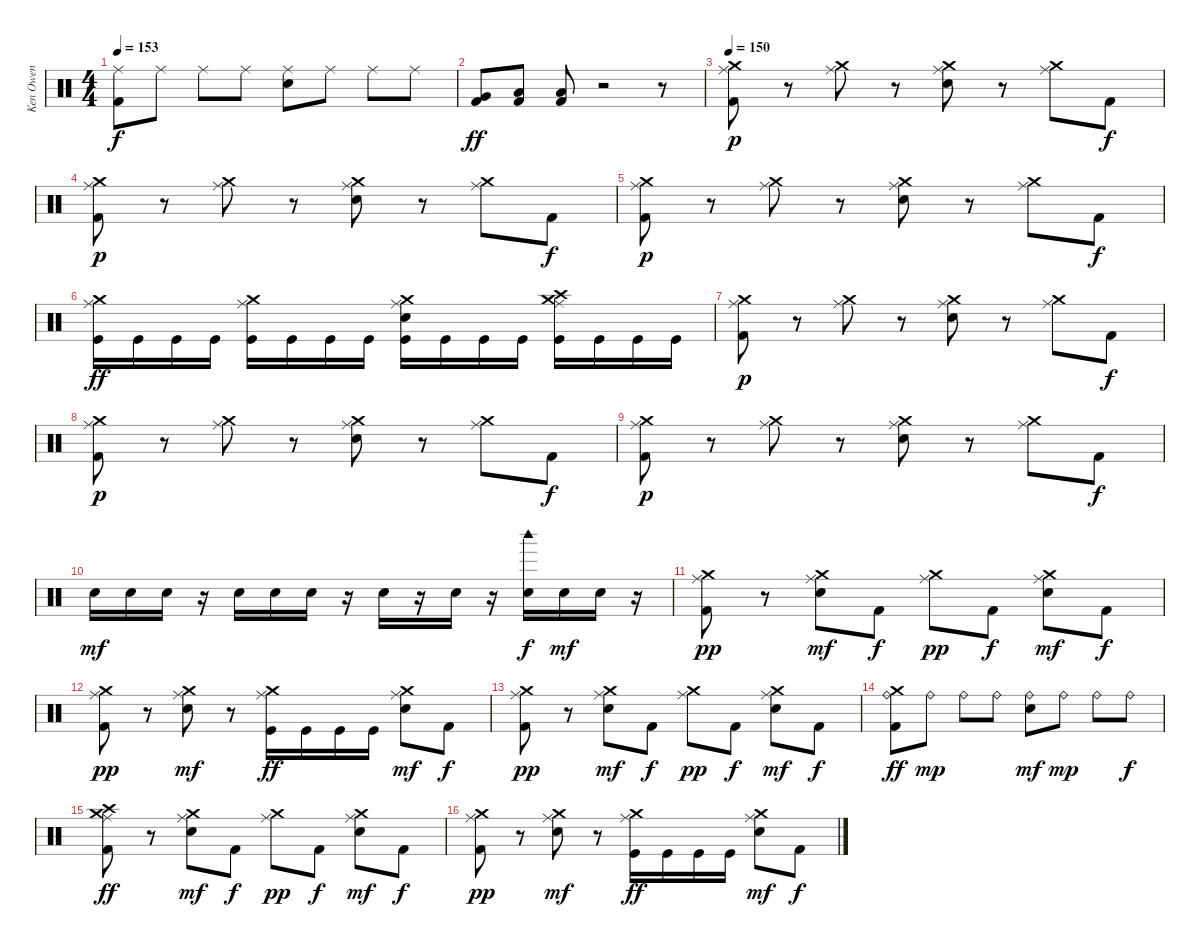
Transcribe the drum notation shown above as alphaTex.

\track ("Ken Owen" "Ken Owen") {instrument percussion}
\staff {score}
\articulation defaults
\ts (4 4)
\tempo 153
\clef neutral
\ks c
("Ride (middle)" "Kick (hit) 2").8{dy f} "Ride (middle)".8 "Ride (middle)".8 "Ride (middle)".8 ("Ride (middle)" "Electric Snare (hit)").8 "Ride (middle)".8 "Ride (middle)".8 "Ride (middle)".8 |
("Kick (hit) 2" "Very Low Tom (hit)").8{dy ff} ("Kick (hit) 2" "Low Floor Tom (hit)").8 ("Kick (hit) 2" "Low Floor Tom (hit)").8 r.2 r.8 |
\tempo 150
("Crash medium (hit)" "Ride (middle)" "Kick (hit) 2").8{dy p} r.8 ("Crash medium (hit)" "Ride (middle)").8 r.8 ("Crash medium (hit)" "Ride (middle)" "Electric Snare (hit)").8 r.8 ("Crash medium (hit)" "Ride (middle)").8 "Kick (hit) 2".8{dy f} |
("Crash medium (hit)" "Ride (middle)" "Kick (hit) 2").8{dy p} r.8 ("Crash medium (hit)" "Ride (middle)").8 r.8 ("Crash medium (hit)" "Ride (middle)" "Electric Snare (hit)").8 r.8 ("Crash medium (hit)" "Ride (middle)").8 "Kick (hit) 2".8{dy f} |
("Crash medium (hit)" "Ride (middle)" "Kick (hit) 2").8{dy p} r.8 ("Crash medium (hit)" "Ride (middle)").8 r.8 ("Crash medium (hit)" "Ride (middle)" "Electric Snare (hit)").8 r.8 ("Crash medium (hit)" "Ride (middle)").8 "Kick (hit) 2".8{dy f} |
("Crash medium (hit)" "Ride (middle)" "Kick (hit)").16{dy ff} "Kick (hit)".16 "Kick (hit)".16 "Kick (hit)".16 ("Crash medium (hit)" "Ride (middle)" "Kick (hit)").16 "Kick (hit)".16 "Kick (hit)".16 "Kick (hit)".16 ("Crash medium (hit)" "Ride (middle)" "Kick (hit)" "Electric Snare (hit)").16 "Kick (hit)".16 "Kick (hit)".16 "Kick (hit)".16 ("Crash medium (hit)" "Ride (middle)" "Kick (hit)" "Crash high (hit)").16 "Kick (hit)".16 "Kick (hit)".16 "Kick (hit)".16 |
("Crash medium (hit)" "Ride (middle)" "Kick (hit) 2").8{dy p} r.8 ("Crash medium (hit)" "Ride (middle)").8 r.8 ("Crash medium (hit)" "Ride (middle)" "Electric Snare (hit)").8 r.8 ("Crash medium (hit)" "Ride (middle)").8 "Kick (hit) 2".8{dy f} |
("Crash medium (hit)" "Ride (middle)" "Kick (hit) 2").8{dy p} r.8 ("Crash medium (hit)" "Ride (middle)").8 r.8 ("Crash medium (hit)" "Ride (middle)" "Electric Snare (hit)").8 r.8 ("Crash medium (hit)" "Ride (middle)").8 "Kick (hit) 2".8{dy f} |
("Crash medium (hit)" "Ride (middle)" "Kick (hit) 2").8{dy p} r.8 ("Crash medium (hit)" "Ride (middle)").8 r.8 ("Crash medium (hit)" "Ride (middle)" "Electric Snare (hit)").8 r.8 ("Crash medium (hit)" "Ride (middle)").8 "Kick (hit) 2".8{dy f} |
"Electric Snare (hit)".16{dy mf} "Electric Snare (hit)".16 "Electric Snare (hit)".16 r.16 "Electric Snare (hit)".16 "Electric Snare (hit)".16 "Electric Snare (hit)".16 r.16 "Electric Snare (hit)".16 r.16 "Electric Snare (hit)".16 r.16 ("Electric Snare (hit)" "Woodblock high (hit)").16{dy f} "Electric Snare (hit)".16{dy mf} "Electric Snare (hit)".16 r.16 |
("Crash medium (hit)" "Ride (middle)" "Kick (hit) 2").8{dy pp} r.8 ("Crash medium (hit)" "Ride (middle)" "Electric Snare (hit)").8{dy mf} "Kick (hit) 2".8{dy f} ("Crash medium (hit)" "Ride (middle)").8{dy pp} "Kick (hit) 2".8{dy f} ("Crash medium (hit)" "Ride (middle)" "Electric Snare (hit)").8{dy mf} "Kick (hit) 2".8{dy f} |
("Crash medium (hit)" "Ride (middle)" "Kick (hit) 2").8{dy pp} r.8 ("Crash medium (hit)" "Ride (middle)" "Electric Snare (hit)").8{dy mf} r.8 ("Crash medium (hit)" "Ride (middle)" "Kick (hit)").16{dy ff} "Kick (hit)".16 "Kick (hit)".16 "Kick (hit)".16 ("Crash medium (hit)" "Ride (middle)" "Electric Snare (hit)").8{dy mf} "Kick (hit) 2".8{dy f} |
("Crash medium (hit)" "Ride (middle)" "Kick (hit) 2").8{dy pp} r.8 ("Crash medium (hit)" "Ride (middle)" "Electric Snare (hit)").8{dy mf} "Kick (hit) 2".8{dy f} ("Crash medium (hit)" "Ride (middle)").8{dy pp} "Kick (hit) 2".8{dy f} ("Crash medium (hit)" "Ride (middle)" "Electric Snare (hit)").8{dy mf} "Kick (hit) 2".8{dy f} |
("Ride (bell)" "Kick (hit) 2" "Crash medium (hit)").8{dy ff} "Ride (bell)".8{dy mp} "Ride (bell)".8 "Ride (bell)".8 ("Ride (bell)" "Electric Snare (hit)").8{dy mf} "Ride (bell)".8{dy mp} "Ride (bell)".8 "Ride (bell)".8{dy f} |
("Crash medium (hit)" "Ride (middle)" "Kick (hit) 2" "Crash high (hit)").8{dy ff} r.8 ("Crash medium (hit)" "Ride (middle)" "Electric Snare (hit)").8{dy mf} "Kick (hit) 2".8{dy f} ("Crash medium (hit)" "Ride (middle)").8{dy pp} "Kick (hit) 2".8{dy f} ("Crash medium (hit)" "Ride (middle)" "Electric Snare (hit)").8{dy mf} "Kick (hit) 2".8{dy f} |
("Crash medium (hit)" "Ride (middle)" "Kick (hit) 2").8{dy pp} r.8 ("Crash medium (hit)" "Ride (middle)" "Electric Snare (hit)").8{dy mf} r.8 ("Crash medium (hit)" "Ride (middle)" "Kick (hit)").16{dy ff} "Kick (hit)".16 "Kick (hit)".16 "Kick (hit)".16 ("Crash medium (hit)" "Ride (middle)" "Electric Snare (hit)").8{dy mf} "Kick (hit) 2".8{dy f}
